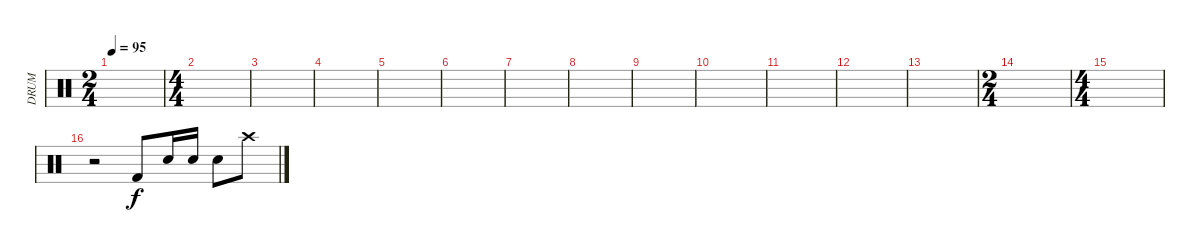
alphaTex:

\track ("DRUM" "DRUM") {instrument percussion}
\staff {score}
\articulation defaults
\ts (2 4)
\tempo 95
\tempo 80
\tempo 95
\clef neutral
\ks c
|
\ts (4 4)
|
|
|
|
|
|
|
|
|
|
|
|
\ts (2 4)
|
\ts (4 4)
|
r.2 "Kick (hit) 2".8 "Electric Snare (hit)".16 "Electric Snare (hit)".16 "Electric Snare (hit)".8 "Crash high (hit)".8
